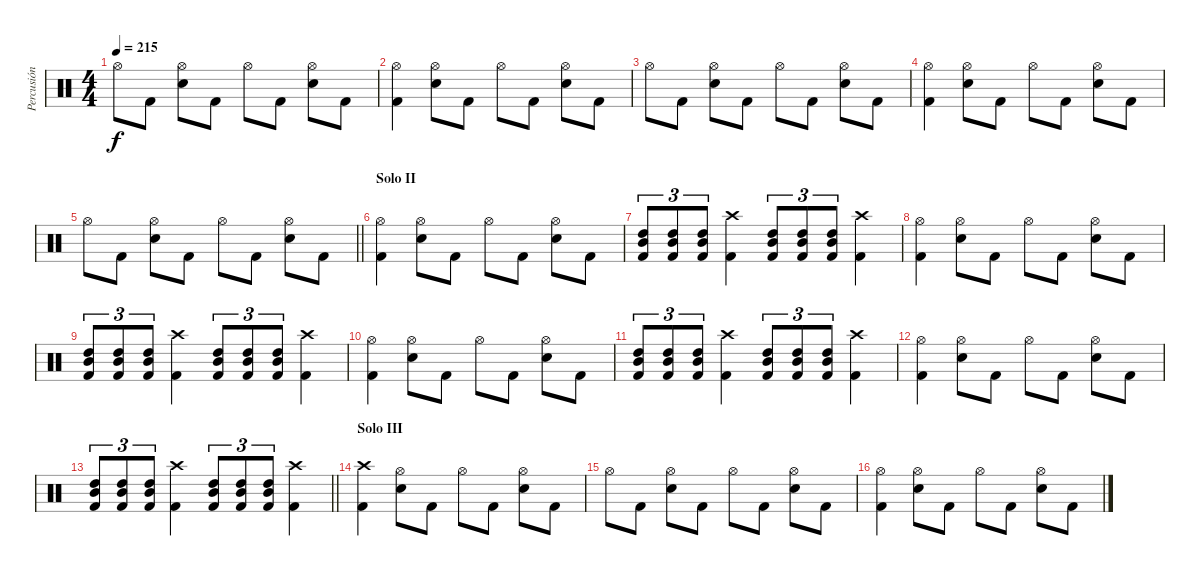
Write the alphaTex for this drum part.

\track ("Percusión" "Percusión") {instrument percussion}
\staff {score}
\articulation defaults
\ts (4 4)
\tempo 215
\clef neutral
\ks c "Hi-Hat (open)".8{dy f} "Kick (hit) 2".8
("Hi-Hat (open)" "Electric Snare (hit)").8 "Kick (hit) 2".8 "Hi-Hat (open)".8 "Kick (hit) 2".8 ("Hi-Hat (open)" "Electric Snare (hit)").8 "Kick (hit) 2".8 |
("Hi-Hat (open)" "Kick (hit) 2").4 ("Hi-Hat (open)" "Electric Snare (hit)").8 "Kick (hit) 2".8 "Hi-Hat (open)".8 "Kick (hit) 2".8 ("Hi-Hat (open)" "Electric Snare (hit)").8 "Kick (hit) 2".8 |
"Hi-Hat (open)".8 "Kick (hit) 2".8 ("Hi-Hat (open)" "Electric Snare (hit)").8 "Kick (hit) 2".8 "Hi-Hat (open)".8 "Kick (hit) 2".8 ("Hi-Hat (open)" "Electric Snare (hit)").8 "Kick (hit) 2".8 |
("Hi-Hat (open)" "Kick (hit) 2").4 ("Hi-Hat (open)" "Electric Snare (hit)").8 "Kick (hit) 2".8 "Hi-Hat (open)".8 "Kick (hit) 2".8 ("Hi-Hat (open)" "Electric Snare (hit)").8 "Kick (hit) 2".8 |
\barLineRight lightlight "Hi-Hat (open)".8 "Kick (hit) 2".8
("Hi-Hat (open)" "Electric Snare (hit)").8 "Kick (hit) 2".8 "Hi-Hat (open)".8 "Kick (hit) 2".8 ("Hi-Hat (open)" "Electric Snare (hit)").8 "Kick (hit) 2".8 |
\section ("" "Solo II")
("Hi-Hat (open)" "Kick (hit) 2").4 ("Hi-Hat (open)" "Electric Snare (hit)").8 "Kick (hit) 2".8 "Hi-Hat (open)".8 "Kick (hit) 2".8 ("Hi-Hat (open)" "Electric Snare (hit)").8 "Kick (hit) 2".8 |
("High Tom (hit)" "Mid Tom (hit)" "Kick (hit) 2").8{tu (3 2)} ("High Tom (hit)" "Mid Tom (hit)" "Kick (hit) 2").8{tu (3 2)} ("High Tom (hit)" "Mid Tom (hit)" "Kick (hit) 2").8{tu (3 2)} ("Crash high (hit)" "Kick (hit) 2").4 ("High Tom (hit)" "Mid Tom (hit)" "Kick (hit) 2").8{tu (3 2)} ("High Tom (hit)" "Mid Tom (hit)" "Kick (hit) 2").8{tu (3 2)} ("High Tom (hit)" "Mid Tom (hit)" "Kick (hit) 2").8{tu (3 2)} ("Crash high (hit)" "Kick (hit) 2").4 |
("Hi-Hat (open)" "Kick (hit) 2").4 ("Hi-Hat (open)" "Electric Snare (hit)").8 "Kick (hit) 2".8 "Hi-Hat (open)".8 "Kick (hit) 2".8 ("Hi-Hat (open)" "Electric Snare (hit)").8 "Kick (hit) 2".8 |
("High Tom (hit)" "Mid Tom (hit)" "Kick (hit) 2").8{tu (3 2)} ("High Tom (hit)" "Mid Tom (hit)" "Kick (hit) 2").8{tu (3 2)} ("High Tom (hit)" "Mid Tom (hit)" "Kick (hit) 2").8{tu (3 2)} ("Crash high (hit)" "Kick (hit) 2").4 ("High Tom (hit)" "Mid Tom (hit)" "Kick (hit) 2").8{tu (3 2)} ("High Tom (hit)" "Mid Tom (hit)" "Kick (hit) 2").8{tu (3 2)} ("High Tom (hit)" "Mid Tom (hit)" "Kick (hit) 2").8{tu (3 2)} ("Crash high (hit)" "Kick (hit) 2").4 |
("Hi-Hat (open)" "Kick (hit) 2").4 ("Hi-Hat (open)" "Electric Snare (hit)").8 "Kick (hit) 2".8 "Hi-Hat (open)".8 "Kick (hit) 2".8 ("Hi-Hat (open)" "Electric Snare (hit)").8 "Kick (hit) 2".8 |
("High Tom (hit)" "Mid Tom (hit)" "Kick (hit) 2").8{tu (3 2)} ("High Tom (hit)" "Mid Tom (hit)" "Kick (hit) 2").8{tu (3 2)} ("High Tom (hit)" "Mid Tom (hit)" "Kick (hit) 2").8{tu (3 2)} ("Crash high (hit)" "Kick (hit) 2").4 ("High Tom (hit)" "Mid Tom (hit)" "Kick (hit) 2").8{tu (3 2)} ("High Tom (hit)" "Mid Tom (hit)" "Kick (hit) 2").8{tu (3 2)} ("High Tom (hit)" "Mid Tom (hit)" "Kick (hit) 2").8{tu (3 2)} ("Crash high (hit)" "Kick (hit) 2").4 |
("Hi-Hat (open)" "Kick (hit) 2").4 ("Hi-Hat (open)" "Electric Snare (hit)").8 "Kick (hit) 2".8 "Hi-Hat (open)".8 "Kick (hit) 2".8 ("Hi-Hat (open)" "Electric Snare (hit)").8 "Kick (hit) 2".8 |
\barLineRight lightlight
("High Tom (hit)" "Mid Tom (hit)" "Kick (hit) 2").8{tu (3 2)} ("High Tom (hit)" "Mid Tom (hit)" "Kick (hit) 2").8{tu (3 2)} ("High Tom (hit)" "Mid Tom (hit)" "Kick (hit) 2").8{tu (3 2)} ("Crash high (hit)" "Kick (hit) 2").4 ("High Tom (hit)" "Mid Tom (hit)" "Kick (hit) 2").8{tu (3 2)} ("High Tom (hit)" "Mid Tom (hit)" "Kick (hit) 2").8{tu (3 2)} ("High Tom (hit)" "Mid Tom (hit)" "Kick (hit) 2").8{tu (3 2)} ("Crash high (hit)" "Kick (hit) 2").4 |
\section ("" "Solo III")
("Crash high (hit)" "Kick (hit) 2").4 ("Hi-Hat (open)" "Electric Snare (hit)").8 "Kick (hit) 2".8 "Hi-Hat (open)".8 "Kick (hit) 2".8 ("Hi-Hat (open)" "Electric Snare (hit)").8 "Kick (hit) 2".8 |
"Hi-Hat (open)".8 "Kick (hit) 2".8 ("Hi-Hat (open)" "Electric Snare (hit)").8 "Kick (hit) 2".8 "Hi-Hat (open)".8 "Kick (hit) 2".8 ("Hi-Hat (open)" "Electric Snare (hit)").8 "Kick (hit) 2".8 |
("Hi-Hat (open)" "Kick (hit) 2").4 ("Hi-Hat (open)" "Electric Snare (hit)").8 "Kick (hit) 2".8 "Hi-Hat (open)".8 "Kick (hit) 2".8 ("Hi-Hat (open)" "Electric Snare (hit)").8 "Kick (hit) 2".8
